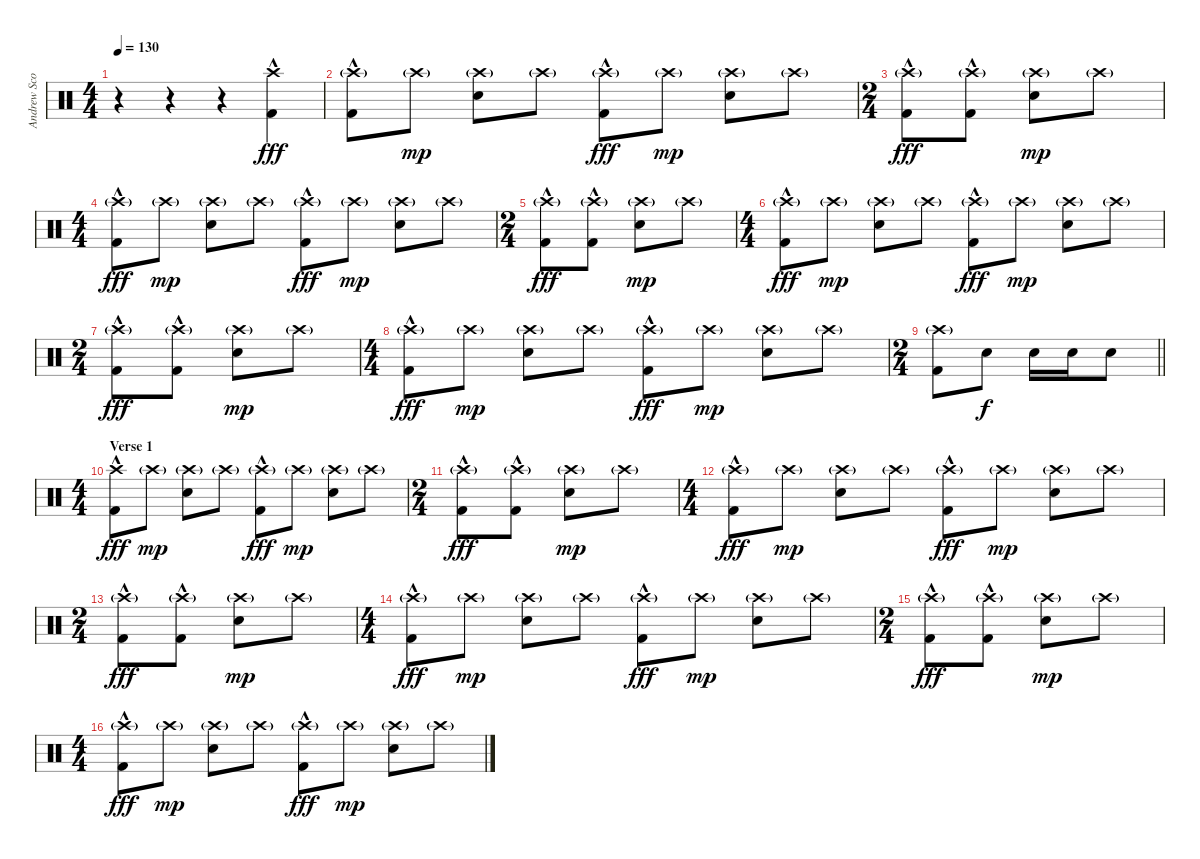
\track ("Andrew Scott" "Andrew Sco") {instrument percussion}
\staff {score}
\articulation defaults
\ts (4 4)
\tempo 130
\clef neutral
\ks c
r.4{dy fff} r.4 r.4 ("Crash high (hit)"{hac} "Kick (hit) 2"{hac}).4 |
("Crash high (hit)"{g} "Kick (hit) 2"{hac}).8 "Crash high (hit)"{g}.8{dy mp} ("Crash high (hit)"{g} "Snare (hit) 2").8 "Crash high (hit)"{g}.8 ("Crash high (hit)"{g} "Kick (hit) 2"{hac}).8{dy fff} "Crash high (hit)"{g}.8{dy mp} ("Crash high (hit)"{g} "Snare (hit) 2").8 "Crash high (hit)"{g}.8 |
\ts (2 4)
("Crash high (hit)"{g} "Kick (hit) 2"{hac}).8{dy fff} ("Crash high (hit)"{g} "Kick (hit) 2"{hac}).8 ("Crash high (hit)"{g} "Snare (hit) 2").8{dy mp} "Crash high (hit)"{g}.8 |
\ts (4 4)
("Crash high (hit)"{g} "Kick (hit) 2"{hac}).8{dy fff} "Crash high (hit)"{g}.8{dy mp} ("Crash high (hit)"{g} "Snare (hit) 2").8 "Crash high (hit)"{g}.8 ("Crash high (hit)"{g} "Kick (hit) 2"{hac}).8{dy fff} "Crash high (hit)"{g}.8{dy mp} ("Crash high (hit)"{g} "Snare (hit) 2").8 "Crash high (hit)"{g}.8 |
\ts (2 4)
("Crash high (hit)"{g} "Kick (hit) 2"{hac}).8{dy fff} ("Crash high (hit)"{g} "Kick (hit) 2"{hac}).8 ("Crash high (hit)"{g} "Snare (hit) 2").8{dy mp} "Crash high (hit)"{g}.8 |
\ts (4 4)
("Crash high (hit)"{g} "Kick (hit) 2"{hac}).8{dy fff} "Crash high (hit)"{g}.8{dy mp} ("Crash high (hit)"{g} "Snare (hit) 2").8 "Crash high (hit)"{g}.8 ("Crash high (hit)"{g} "Kick (hit) 2"{hac}).8{dy fff} "Crash high (hit)"{g}.8{dy mp} ("Crash high (hit)"{g} "Snare (hit) 2").8 "Crash high (hit)"{g}.8 |
\ts (2 4)
("Crash high (hit)"{g} "Kick (hit) 2"{hac}).8{dy fff} ("Crash high (hit)"{g} "Kick (hit) 2"{hac}).8 ("Crash high (hit)"{g} "Snare (hit) 2").8{dy mp} "Crash high (hit)"{g}.8 |
\ts (4 4)
("Crash high (hit)"{g} "Kick (hit) 2"{hac}).8{dy fff} "Crash high (hit)"{g}.8{dy mp} ("Crash high (hit)"{g} "Snare (hit) 2").8 "Crash high (hit)"{g}.8 ("Crash high (hit)"{g} "Kick (hit) 2"{hac}).8{dy fff} "Crash high (hit)"{g}.8{dy mp} ("Crash high (hit)"{g} "Snare (hit) 2").8 "Crash high (hit)"{g}.8 |
\ts (2 4)
\barLineRight lightlight
("Crash high (hit)"{g} "Kick (hit) 2").8 "Snare (hit) 2".8{dy f} "Snare (hit) 2".16 "Snare (hit) 2".16 "Snare (hit) 2".8 |
\ts (4 4)
\section ("" "Verse 1")
("Crash high (hit)" "Kick (hit) 2"{hac}).8{dy fff} "Crash high (hit)"{g}.8{dy mp} ("Crash high (hit)"{g} "Snare (hit) 2").8 "Crash high (hit)"{g}.8 ("Crash high (hit)"{g} "Kick (hit) 2"{hac}).8{dy fff} "Crash high (hit)"{g}.8{dy mp} ("Crash high (hit)"{g} "Snare (hit) 2").8 "Crash high (hit)"{g}.8 |
\ts (2 4)
("Crash high (hit)"{g} "Kick (hit) 2"{hac}).8{dy fff} ("Crash high (hit)"{g} "Kick (hit) 2"{hac}).8 ("Crash high (hit)"{g} "Snare (hit) 2").8{dy mp} "Crash high (hit)"{g}.8 |
\ts (4 4)
("Crash high (hit)"{g} "Kick (hit) 2"{hac}).8{dy fff} "Crash high (hit)"{g}.8{dy mp} ("Crash high (hit)"{g} "Snare (hit) 2").8 "Crash high (hit)"{g}.8 ("Crash high (hit)"{g} "Kick (hit) 2"{hac}).8{dy fff} "Crash high (hit)"{g}.8{dy mp} ("Crash high (hit)"{g} "Snare (hit) 2").8 "Crash high (hit)"{g}.8 |
\ts (2 4)
("Crash high (hit)"{g} "Kick (hit) 2"{hac}).8{dy fff} ("Crash high (hit)"{g} "Kick (hit) 2"{hac}).8 ("Crash high (hit)"{g} "Snare (hit) 2").8{dy mp} "Crash high (hit)"{g}.8 |
\ts (4 4)
("Crash high (hit)"{g} "Kick (hit) 2"{hac}).8{dy fff} "Crash high (hit)"{g}.8{dy mp} ("Crash high (hit)"{g} "Snare (hit) 2").8 "Crash high (hit)"{g}.8 ("Crash high (hit)"{g} "Kick (hit) 2"{hac}).8{dy fff} "Crash high (hit)"{g}.8{dy mp} ("Crash high (hit)"{g} "Snare (hit) 2").8 "Crash high (hit)"{g}.8 |
\ts (2 4)
("Crash high (hit)"{g} "Kick (hit) 2"{hac}).8{dy fff} ("Crash high (hit)"{g} "Kick (hit) 2"{hac}).8 ("Crash high (hit)"{g} "Snare (hit) 2").8{dy mp} "Crash high (hit)"{g}.8 |
\ts (4 4)
("Crash high (hit)"{g} "Kick (hit) 2"{hac}).8{dy fff} "Crash high (hit)"{g}.8{dy mp} ("Crash high (hit)"{g} "Snare (hit) 2").8 "Crash high (hit)"{g}.8 ("Crash high (hit)"{g} "Kick (hit) 2"{hac}).8{dy fff} "Crash high (hit)"{g}.8{dy mp} ("Crash high (hit)"{g} "Snare (hit) 2").8 "Crash high (hit)"{g}.8
